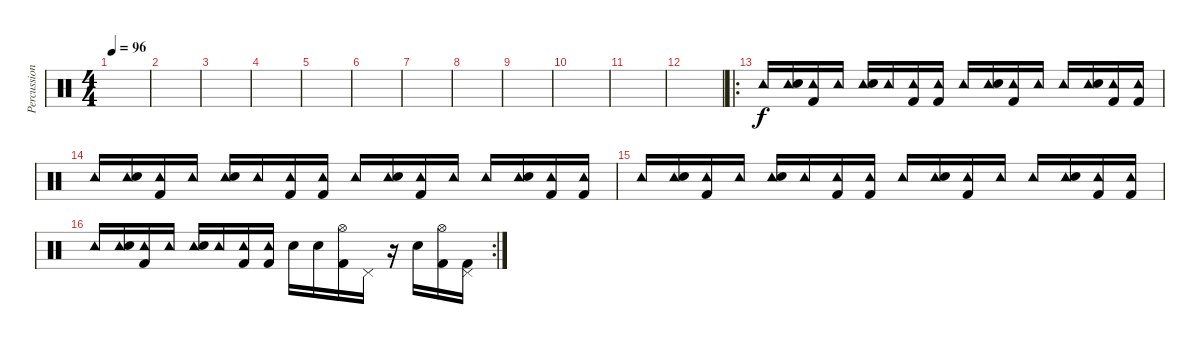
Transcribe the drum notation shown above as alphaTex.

\track ("Percussion" "Percussion") {instrument percussion}
\staff {score}
\articulation defaults
\ts (4 4)
\tempo 96
\clef neutral
\ks c
|
|
|
|
|
|
|
|
|
|
|
|
\ro "Tambourine (hit)".16
("Tambourine (hit)" "Electric Snare (hit)").16 ("Tambourine (hit)" "Kick (hit) 2").16 "Tambourine (hit)".16 ("Tambourine (hit)" "Electric Snare (hit)").16 "Tambourine (hit)".16 ("Tambourine (hit)" "Kick (hit) 2").16 ("Tambourine (hit)" "Kick (hit) 2").16 "Tambourine (hit)".16 ("Tambourine (hit)" "Electric Snare (hit)").16 ("Tambourine (hit)" "Kick (hit) 2").16 "Tambourine (hit)".16 "Tambourine (hit)".16 ("Tambourine (hit)" "Electric Snare (hit)").16 ("Tambourine (hit)" "Kick (hit) 2").16 ("Tambourine (hit)" "Kick (hit) 2").16 |
"Tambourine (hit)".16 ("Tambourine (hit)" "Electric Snare (hit)").16 ("Tambourine (hit)" "Kick (hit) 2").16 "Tambourine (hit)".16 ("Tambourine (hit)" "Electric Snare (hit)").16 "Tambourine (hit)".16 ("Tambourine (hit)" "Kick (hit) 2").16 ("Tambourine (hit)" "Kick (hit) 2").16 "Tambourine (hit)".16 ("Tambourine (hit)" "Electric Snare (hit)").16 ("Tambourine (hit)" "Kick (hit) 2").16 "Tambourine (hit)".16 "Tambourine (hit)".16 ("Tambourine (hit)" "Electric Snare (hit)").16 ("Tambourine (hit)" "Kick (hit) 2").16 ("Tambourine (hit)" "Kick (hit) 2").16 |
"Tambourine (hit)".16 ("Tambourine (hit)" "Electric Snare (hit)").16 ("Tambourine (hit)" "Kick (hit) 2").16 "Tambourine (hit)".16 ("Tambourine (hit)" "Electric Snare (hit)").16 "Tambourine (hit)".16 ("Tambourine (hit)" "Kick (hit) 2").16 ("Tambourine (hit)" "Kick (hit) 2").16 "Tambourine (hit)".16 ("Tambourine (hit)" "Electric Snare (hit)").16 ("Tambourine (hit)" "Kick (hit) 2").16 "Tambourine (hit)".16 "Tambourine (hit)".16 ("Tambourine (hit)" "Electric Snare (hit)").16 ("Tambourine (hit)" "Kick (hit) 2").16 ("Tambourine (hit)" "Kick (hit) 2").16 |
\rc 2 "Tambourine (hit)".16
("Tambourine (hit)" "Electric Snare (hit)").16 ("Tambourine (hit)" "Kick (hit) 2").16 "Tambourine (hit)".16 ("Tambourine (hit)" "Electric Snare (hit)").16 "Tambourine (hit)".16 ("Tambourine (hit)" "Kick (hit) 2").16 ("Tambourine (hit)" "Kick (hit) 2").16 "Electric Snare (hit)".16 "Electric Snare (hit)".16 ("Hi-Hat (open)" "Kick (hit) 2").16 "Pedal Hi-Hat (hit)".16 r.16 "Electric Snare (hit)".16 ("Hi-Hat (open)" "Kick (hit) 2").16 ("Pedal Hi-Hat (hit)" "Kick (hit) 2").16
